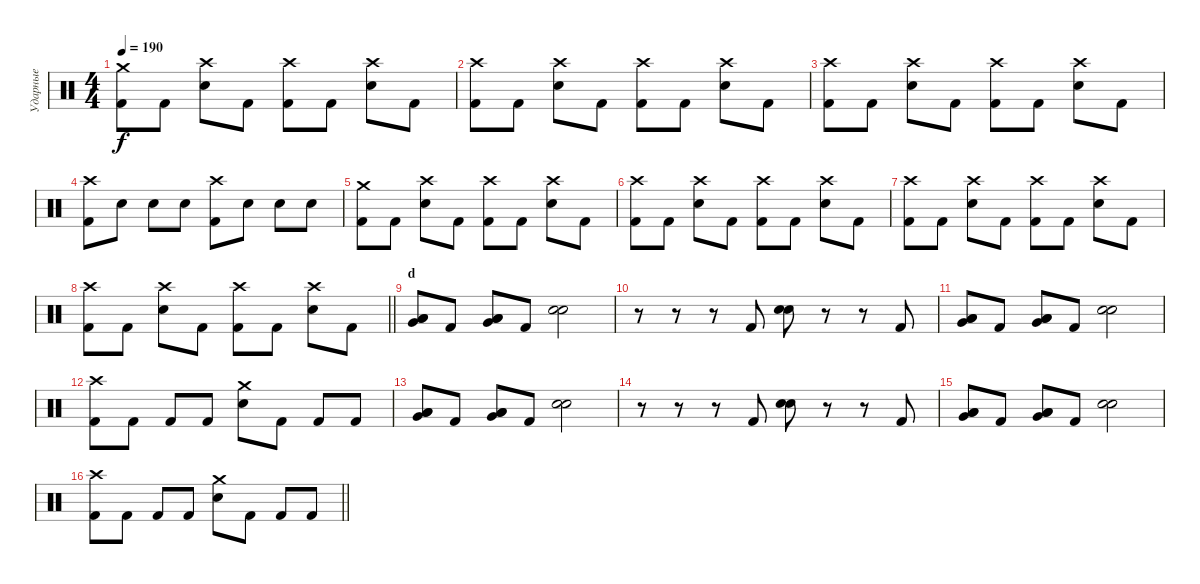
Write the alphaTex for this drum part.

\track ("Ударные" "Ударные") {instrument percussion}
\staff {score}
\articulation defaults
\ts (4 4)
\tempo 190
\clef neutral
\ks c
("Crash medium (hit)" "Kick (hit) 2").8{dy f} "Kick (hit) 2".8 ("Crash high (hit)" "Snare (hit) 2").8 "Kick (hit) 2".8 ("Crash high (hit)" "Kick (hit) 2").8 "Kick (hit) 2".8 ("Crash high (hit)" "Snare (hit) 2").8 "Kick (hit) 2".8 |
("Crash high (hit)" "Kick (hit) 2").8 "Kick (hit) 2".8 ("Crash high (hit)" "Snare (hit) 2").8 "Kick (hit) 2".8 ("Crash high (hit)" "Kick (hit) 2").8 "Kick (hit) 2".8 ("Crash high (hit)" "Snare (hit) 2").8 "Kick (hit) 2".8 |
("Crash high (hit)" "Kick (hit) 2").8 "Kick (hit) 2".8 ("Crash high (hit)" "Snare (hit) 2").8 "Kick (hit) 2".8 ("Crash high (hit)" "Kick (hit) 2").8 "Kick (hit) 2".8 ("Crash high (hit)" "Snare (hit) 2").8 "Kick (hit) 2".8 |
("Crash high (hit)" "Kick (hit) 2").8 "Snare (hit) 2".8 "Snare (hit) 2".8 "Snare (hit) 2".8 ("Crash high (hit)" "Kick (hit) 2").8 "Snare (hit) 2".8 "Snare (hit) 2".8 "Snare (hit) 2".8 |
("Crash medium (hit)" "Kick (hit) 2").8 "Kick (hit) 2".8 ("Crash high (hit)" "Snare (hit) 2").8 "Kick (hit) 2".8 ("Crash high (hit)" "Kick (hit) 2").8 "Kick (hit) 2".8 ("Crash high (hit)" "Snare (hit) 2").8 "Kick (hit) 2".8 |
("Crash high (hit)" "Kick (hit) 2").8 "Kick (hit) 2".8 ("Crash high (hit)" "Snare (hit) 2").8 "Kick (hit) 2".8 ("Crash high (hit)" "Kick (hit) 2").8 "Kick (hit) 2".8 ("Crash high (hit)" "Snare (hit) 2").8 "Kick (hit) 2".8 |
("Crash high (hit)" "Kick (hit) 2").8 "Kick (hit) 2".8 ("Crash high (hit)" "Snare (hit) 2").8 "Kick (hit) 2".8 ("Crash high (hit)" "Kick (hit) 2").8 "Kick (hit) 2".8 ("Crash high (hit)" "Snare (hit) 2").8 "Kick (hit) 2".8 |
\barLineRight lightlight
("Crash high (hit)" "Kick (hit) 2").8 "Kick (hit) 2".8 ("Crash high (hit)" "Snare (hit) 2").8 "Kick (hit) 2".8 ("Crash high (hit)" "Kick (hit) 2").8 "Kick (hit) 2".8 ("Crash high (hit)" "Snare (hit) 2").8 "Kick (hit) 2".8 |
\section ("" "d")
("Low Tom (hit)" "Low Floor Tom (hit)" "Very Low Tom (hit)").8 "Kick (hit) 2".8 ("Low Tom (hit)" "Low Floor Tom (hit)" "Very Low Tom (hit)").8 "Kick (hit) 2".8 ("Electric Snare (hit)" "Snare (hit) 2").2 |
r.8 r.8 r.8 "Kick (hit) 2".8 ("Electric Snare (hit)" "Snare (hit) 2").8 r.8 r.8 "Kick (hit) 2".8 |
("Low Tom (hit)" "Low Floor Tom (hit)" "Very Low Tom (hit)").8 "Kick (hit) 2".8 ("Low Tom (hit)" "Low Floor Tom (hit)" "Very Low Tom (hit)").8 "Kick (hit) 2".8 ("Electric Snare (hit)" "Snare (hit) 2").2 |
("Crash high (hit)" "Kick (hit) 2").8 "Kick (hit) 2".8 "Kick (hit) 2".8 "Kick (hit) 2".8 ("Crash medium (hit)" "Snare (hit) 2").8 "Kick (hit) 2".8 "Kick (hit) 2".8 "Kick (hit) 2".8 |
("Low Tom (hit)" "Low Floor Tom (hit)" "Very Low Tom (hit)").8 "Kick (hit) 2".8 ("Low Tom (hit)" "Low Floor Tom (hit)" "Very Low Tom (hit)").8 "Kick (hit) 2".8 ("Electric Snare (hit)" "Snare (hit) 2").2 |
r.8 r.8 r.8 "Kick (hit) 2".8 ("Electric Snare (hit)" "Snare (hit) 2").8 r.8 r.8 "Kick (hit) 2".8 |
("Low Tom (hit)" "Low Floor Tom (hit)" "Very Low Tom (hit)").8 "Kick (hit) 2".8 ("Low Tom (hit)" "Low Floor Tom (hit)" "Very Low Tom (hit)").8 "Kick (hit) 2".8 ("Electric Snare (hit)" "Snare (hit) 2").2 |
\barLineRight lightlight
("Crash high (hit)" "Kick (hit) 2").8 "Kick (hit) 2".8 "Kick (hit) 2".8 "Kick (hit) 2".8 ("Crash medium (hit)" "Snare (hit) 2").8 "Kick (hit) 2".8 "Kick (hit) 2".8 "Kick (hit) 2".8
